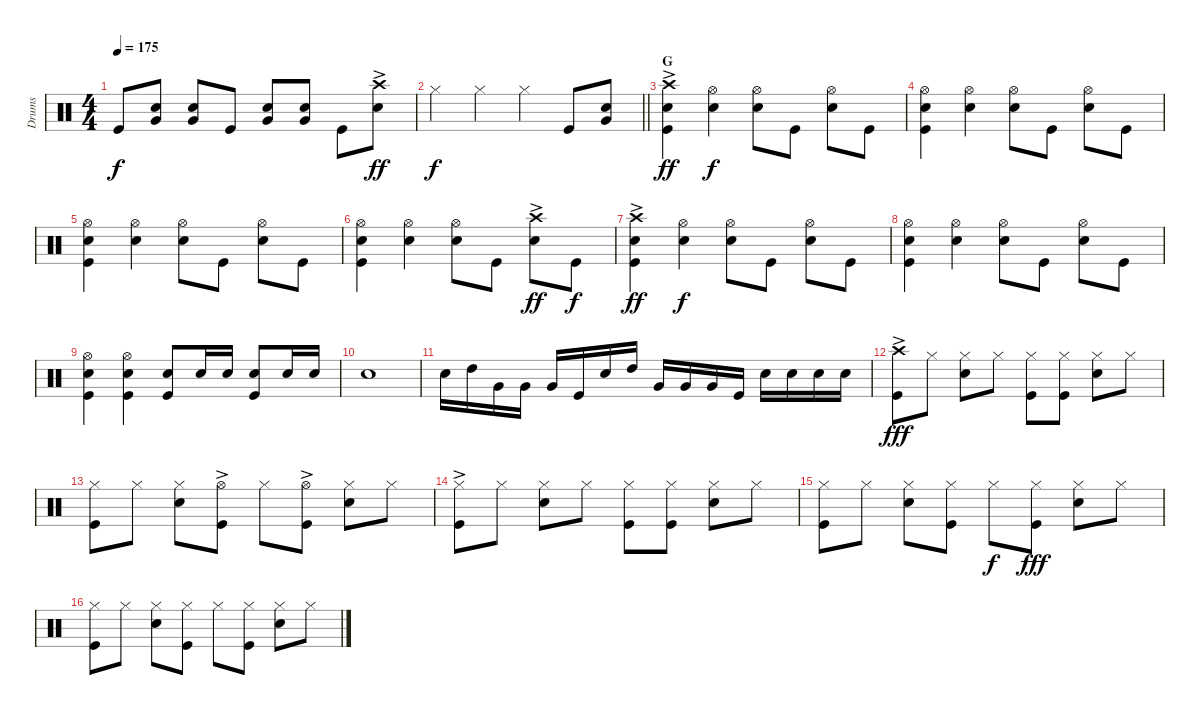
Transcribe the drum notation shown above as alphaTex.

\track ("Drums" "Drums") {instrument percussion}
\staff {score}
\articulation defaults
\ts (4 4)
\tempo 175
\clef neutral
\ks c "Kick (hit)".8{dy f}
("Snare (hit) 2" "Very Low Tom (hit)").8 ("Very Low Tom (hit)" "Snare (hit) 2").8 "Kick (hit)".8 ("Snare (hit) 2" "Very Low Tom (hit)").8 ("Snare (hit) 2" "Very Low Tom (hit)").8 "Kick (hit)".8 ("Crash high (hit)"{ac} "Snare (hit) 2").8{dy ff} |
\barLineRight lightlight "Hi-Hat (closed)".4{dy f} "Hi-Hat (closed)".4 "Hi-Hat (closed)".4 "Kick (hit)".8
("Snare (hit) 2" "Very Low Tom (hit)").8 |
\section ("" "G")
("Crash high (hit)"{ac} "Snare (hit) 2" "Kick (hit)").4{dy ff} ("Hi-Hat (open)" "Snare (hit) 2").4{dy f} ("Hi-Hat (open)" "Snare (hit) 2").8 "Kick (hit)".8 ("Hi-Hat (open)" "Snare (hit) 2").8 "Kick (hit)".8 |
("Hi-Hat (open)" "Snare (hit) 2" "Kick (hit)").4 ("Hi-Hat (open)" "Snare (hit) 2").4 ("Hi-Hat (open)" "Snare (hit) 2").8 "Kick (hit)".8 ("Hi-Hat (open)" "Snare (hit) 2").8 "Kick (hit)".8 |
("Hi-Hat (open)" "Snare (hit) 2" "Kick (hit)").4 ("Hi-Hat (open)" "Snare (hit) 2").4 ("Hi-Hat (open)" "Snare (hit) 2").8 "Kick (hit)".8 ("Hi-Hat (open)" "Snare (hit) 2").8 "Kick (hit)".8 |
("Hi-Hat (open)" "Snare (hit) 2" "Kick (hit)").4 ("Hi-Hat (open)" "Snare (hit) 2").4 ("Hi-Hat (open)" "Snare (hit) 2").8 "Kick (hit)".8 ("Crash high (hit)"{ac} "Snare (hit) 2").8{dy ff} "Kick (hit)".8{dy f} |
("Crash high (hit)"{ac} "Snare (hit) 2" "Kick (hit)").4{dy ff} ("Hi-Hat (open)" "Snare (hit) 2").4{dy f} ("Hi-Hat (open)" "Snare (hit) 2").8 "Kick (hit)".8 ("Hi-Hat (open)" "Snare (hit) 2").8 "Kick (hit)".8 |
("Hi-Hat (open)" "Snare (hit) 2" "Kick (hit)").4 ("Hi-Hat (open)" "Snare (hit) 2").4 ("Hi-Hat (open)" "Snare (hit) 2").8 "Kick (hit)".8 ("Hi-Hat (open)" "Snare (hit) 2").8 "Kick (hit)".8 |
("Hi-Hat (open)" "Kick (hit)" "Snare (hit) 2").4 ("Hi-Hat (open)" "Kick (hit)" "Snare (hit) 2").4 ("Snare (hit) 2" "Kick (hit)").8 "Snare (hit) 2".16 "Snare (hit) 2".16 ("Snare (hit) 2" "Kick (hit)").8 "Snare (hit) 2".16 "Snare (hit) 2".16 |
"Snare (hit) 2".1 |
"Snare (hit) 2".16 "High Tom (hit)".16 "Very Low Tom (hit)".16 "Very Low Tom (hit)".16 "Very Low Tom (hit)".16 "Kick (hit)".16 "Snare (hit) 2".16 "High Tom (hit)".16 "Very Low Tom (hit)".16 "Very Low Tom (hit)".16 "Very Low Tom (hit)".16 "Kick (hit)".16 "Snare (hit) 2".16 "Snare (hit) 2".16 "Snare (hit) 2".16 "Snare (hit) 2".16 |
("Crash high (hit)"{ac} "Kick (hit)").8{dy fff} "Hi-Hat (closed)".8 ("Hi-Hat (closed)" "Snare (hit) 2").8 "Hi-Hat (closed)".8 ("Hi-Hat (closed)" "Kick (hit)").8 ("Hi-Hat (closed)" "Kick (hit)").8 ("Hi-Hat (closed)" "Snare (hit) 2").8 "Hi-Hat (closed)".8 |
("Hi-Hat (closed)" "Kick (hit)").8 "Hi-Hat (closed)".8 ("Hi-Hat (closed)" "Snare (hit) 2").8 ("Hi-Hat (open)"{ac} "Kick (hit)").8 "Hi-Hat (closed)".8 ("Hi-Hat (open)"{ac} "Kick (hit)").8 ("Hi-Hat (closed)" "Snare (hit) 2").8 "Hi-Hat (closed)".8 |
("Hi-Hat (closed)"{ac} "Kick (hit)").8 "Hi-Hat (closed)".8 ("Hi-Hat (closed)" "Snare (hit) 2").8 "Hi-Hat (closed)".8 ("Hi-Hat (closed)" "Kick (hit)").8 ("Hi-Hat (closed)" "Kick (hit)").8 ("Hi-Hat (closed)" "Snare (hit) 2").8 "Hi-Hat (closed)".8 |
("Hi-Hat (closed)" "Kick (hit)").8 "Hi-Hat (closed)".8 ("Hi-Hat (closed)" "Snare (hit) 2").8 ("Hi-Hat (closed)" "Kick (hit)").8 "Hi-Hat (closed)".8{dy f} ("Hi-Hat (closed)" "Kick (hit)").8{dy fff} ("Hi-Hat (closed)" "Snare (hit) 2").8 "Hi-Hat (closed)".8 |
("Hi-Hat (closed)" "Kick (hit)").8 "Hi-Hat (closed)".8 ("Hi-Hat (closed)" "Snare (hit) 2").8 ("Hi-Hat (closed)" "Kick (hit)").8 "Hi-Hat (closed)".8 ("Hi-Hat (closed)" "Kick (hit)").8 ("Hi-Hat (closed)" "Snare (hit) 2").8 "Hi-Hat (closed)".8
